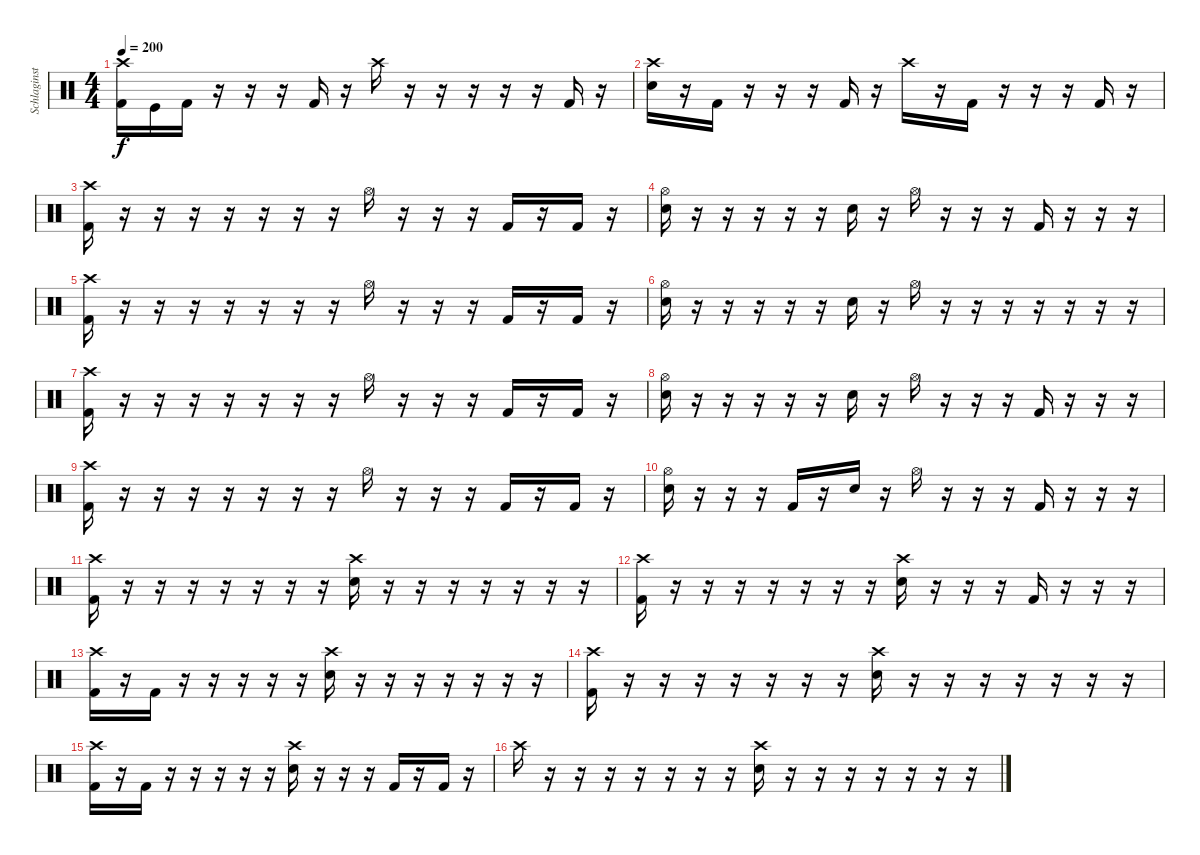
\track ("Schlaginstrumente - Auswahl" "Schlaginst") {instrument percussion}
\staff {score}
\articulation defaults
\ts (4 4)
\tempo 200
\clef neutral
\ks c
("Crash high (hit)" "Kick (hit) 2").16{dy f} "Kick (hit)".16 "Kick (hit) 2".16 r.16 r.16 r.16 "Kick (hit) 2".16 r.16 "Crash high (hit)".16 r.16 r.16 r.16 r.16 r.16 "Kick (hit) 2".16 r.16 |
("Crash high (hit)" "Electric Snare (hit)").16 r.16 "Kick (hit) 2".16 r.16 r.16 r.16 "Kick (hit) 2".16 r.16 "Crash high (hit)".16 r.16 "Kick (hit) 2".16 r.16 r.16 r.16 "Kick (hit) 2".16 r.16 |
("Crash high (hit)" "Kick (hit) 2").16 r.16 r.16 r.16 r.16 r.16 r.16 r.16 "Hi-Hat (open)".16 r.16 r.16 r.16 "Kick (hit) 2".16 r.16 "Kick (hit) 2".16 r.16 |
("Hi-Hat (open)" "Electric Snare (hit)").16 r.16 r.16 r.16 r.16 r.16 "Electric Snare (hit)".16 r.16 "Hi-Hat (open)".16 r.16 r.16 r.16 "Kick (hit) 2".16 r.16 r.16 r.16 |
("Crash high (hit)" "Kick (hit) 2").16 r.16 r.16 r.16 r.16 r.16 r.16 r.16 "Hi-Hat (open)".16 r.16 r.16 r.16 "Kick (hit) 2".16 r.16 "Kick (hit) 2".16 r.16 |
("Hi-Hat (open)" "Electric Snare (hit)").16 r.16 r.16 r.16 r.16 r.16 "Electric Snare (hit)".16 r.16 "Hi-Hat (open)".16 r.16 r.16 r.16 r.16 r.16 r.16 r.16 |
("Crash high (hit)" "Kick (hit) 2").16 r.16 r.16 r.16 r.16 r.16 r.16 r.16 "Hi-Hat (open)".16 r.16 r.16 r.16 "Kick (hit) 2".16 r.16 "Kick (hit) 2".16 r.16 |
("Hi-Hat (open)" "Electric Snare (hit)").16 r.16 r.16 r.16 r.16 r.16 "Electric Snare (hit)".16 r.16 "Hi-Hat (open)".16 r.16 r.16 r.16 "Kick (hit) 2".16 r.16 r.16 r.16 |
("Crash high (hit)" "Kick (hit) 2").16 r.16 r.16 r.16 r.16 r.16 r.16 r.16 "Hi-Hat (open)".16 r.16 r.16 r.16 "Kick (hit) 2".16 r.16 "Kick (hit) 2".16 r.16 |
("Hi-Hat (open)" "Electric Snare (hit)").16 r.16 r.16 r.16 "Kick (hit) 2".16 r.16 "Electric Snare (hit)".16 r.16 "Hi-Hat (open)".16 r.16 r.16 r.16 "Kick (hit) 2".16 r.16 r.16 r.16 |
("Crash high (hit)" "Kick (hit) 2").16 r.16 r.16 r.16 r.16 r.16 r.16 r.16 ("Crash high (hit)" "Electric Snare (hit)").16 r.16 r.16 r.16 r.16 r.16 r.16 r.16 |
("Crash high (hit)" "Kick (hit) 2").16 r.16 r.16 r.16 r.16 r.16 r.16 r.16 ("Crash high (hit)" "Electric Snare (hit)").16 r.16 r.16 r.16 "Kick (hit) 2".16 r.16 r.16 r.16 |
("Crash high (hit)" "Kick (hit) 2").16 r.16 "Kick (hit) 2".16 r.16 r.16 r.16 r.16 r.16 ("Crash high (hit)" "Electric Snare (hit)").16 r.16 r.16 r.16 r.16 r.16 r.16 r.16 |
("Crash high (hit)" "Kick (hit) 2").16 r.16 r.16 r.16 r.16 r.16 r.16 r.16 ("Crash high (hit)" "Electric Snare (hit)").16 r.16 r.16 r.16 r.16 r.16 r.16 r.16 |
("Crash high (hit)" "Kick (hit) 2").16 r.16 "Kick (hit) 2".16 r.16 r.16 r.16 r.16 r.16 ("Crash high (hit)" "Electric Snare (hit)").16 r.16 r.16 r.16 "Kick (hit) 2".16 r.16 "Kick (hit) 2".16 r.16 |
"Crash high (hit)".16 r.16 r.16 r.16 r.16 r.16 r.16 r.16 ("Crash high (hit)" "Electric Snare (hit)").16 r.16 r.16 r.16 r.16 r.16 r.16 r.16
